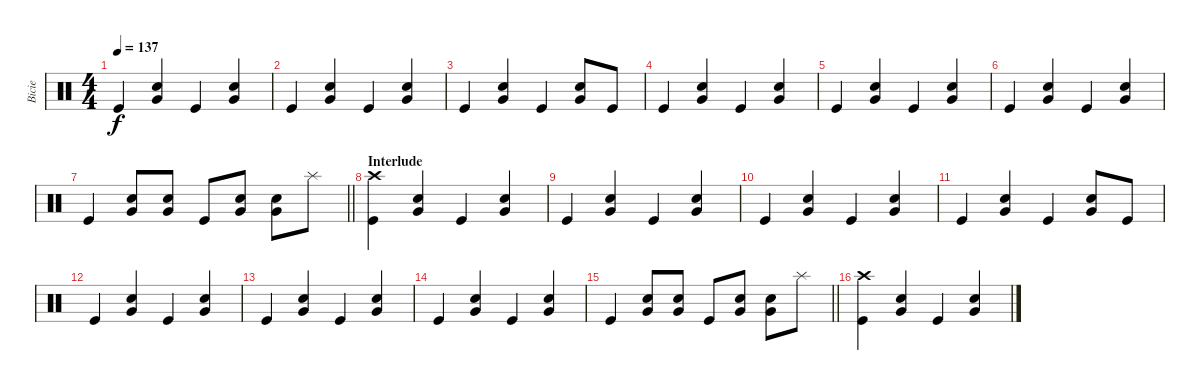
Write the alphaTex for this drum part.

\track ("Bicie" "Bicie") {instrument percussion}
\staff {score}
\articulation defaults
\ts (4 4)
\tempo 137
\clef neutral
\ks c "Kick (hit)".4{dy f}
("Very Low Tom (hit)" "Snare (hit) 2").4 "Kick (hit)".4 ("Very Low Tom (hit)" "Snare (hit) 2").4 |
"Kick (hit)".4 ("Very Low Tom (hit)" "Snare (hit) 2").4 "Kick (hit)".4 ("Very Low Tom (hit)" "Snare (hit) 2").4 |
"Kick (hit)".4 ("Very Low Tom (hit)" "Snare (hit) 2").4 "Kick (hit)".4 ("Very Low Tom (hit)" "Snare (hit) 2").8 "Kick (hit)".8 |
"Kick (hit)".4 ("Very Low Tom (hit)" "Snare (hit) 2").4 "Kick (hit)".4 ("Very Low Tom (hit)" "Snare (hit) 2").4 |
"Kick (hit)".4 ("Very Low Tom (hit)" "Snare (hit) 2").4 "Kick (hit)".4 ("Very Low Tom (hit)" "Snare (hit) 2").4 |
"Kick (hit)".4 ("Very Low Tom (hit)" "Snare (hit) 2").4 "Kick (hit)".4 ("Very Low Tom (hit)" "Snare (hit) 2").4 |
\barLineRight lightlight "Kick (hit)".4
("Very Low Tom (hit)" "Snare (hit) 2").8 ("Very Low Tom (hit)" "Snare (hit) 2").8 "Kick (hit)".8 ("Very Low Tom (hit)" "Snare (hit) 2").8 ("Very Low Tom (hit)" "Snare (hit) 2").8 "Splash (hit)".8 |
\section ("" "Interlude")
("Crash high (hit)" "Kick (hit)").4 ("Very Low Tom (hit)" "Snare (hit) 2").4 "Kick (hit)".4 ("Very Low Tom (hit)" "Snare (hit) 2").4 |
"Kick (hit)".4 ("Very Low Tom (hit)" "Snare (hit) 2").4 "Kick (hit)".4 ("Very Low Tom (hit)" "Snare (hit) 2").4 |
"Kick (hit)".4 ("Very Low Tom (hit)" "Snare (hit) 2").4 "Kick (hit)".4 ("Very Low Tom (hit)" "Snare (hit) 2").4 |
"Kick (hit)".4 ("Very Low Tom (hit)" "Snare (hit) 2").4 "Kick (hit)".4 ("Very Low Tom (hit)" "Snare (hit) 2").8 "Kick (hit)".8 |
"Kick (hit)".4 ("Very Low Tom (hit)" "Snare (hit) 2").4 "Kick (hit)".4 ("Very Low Tom (hit)" "Snare (hit) 2").4 |
"Kick (hit)".4 ("Very Low Tom (hit)" "Snare (hit) 2").4 "Kick (hit)".4 ("Very Low Tom (hit)" "Snare (hit) 2").4 |
"Kick (hit)".4 ("Very Low Tom (hit)" "Snare (hit) 2").4 "Kick (hit)".4 ("Very Low Tom (hit)" "Snare (hit) 2").4 |
\barLineRight lightlight "Kick (hit)".4
("Very Low Tom (hit)" "Snare (hit) 2").8 ("Very Low Tom (hit)" "Snare (hit) 2").8 "Kick (hit)".8 ("Very Low Tom (hit)" "Snare (hit) 2").8 ("Very Low Tom (hit)" "Snare (hit) 2").8 "Splash (hit)".8 |
("Crash high (hit)" "Kick (hit)").4 ("Very Low Tom (hit)" "Snare (hit) 2").4 "Kick (hit)".4 ("Very Low Tom (hit)" "Snare (hit) 2").4
